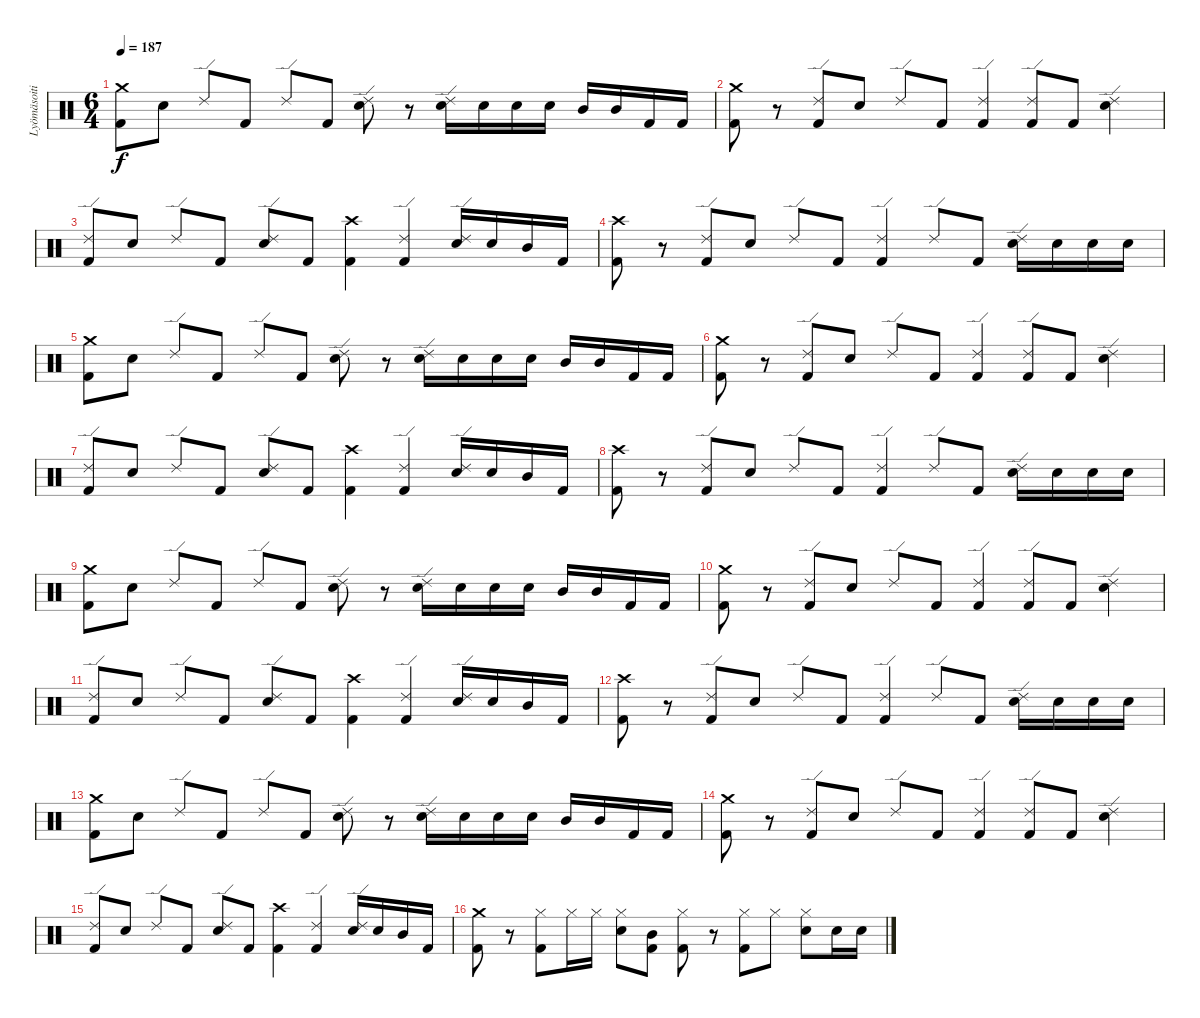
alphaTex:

\track ("Lyömäsoitin" "Lyömäsoiti") {instrument percussion}
\staff {score}
\articulation defaults
\ts (6 4)
\tempo 187
\clef neutral
\ks c
("Kick (hit) 2" "Crash medium (hit)").8{dy f} "Snare (hit) 2".8 "Ride (edge) 2".8 "Kick (hit) 2".8 "Ride (edge) 2".8 "Kick (hit) 2".8 ("Ride (edge) 2" "Snare (hit) 2").8 r.8 ("Ride (edge) 2" "Snare (hit) 2").16 "Snare (hit) 2".16 "Snare (hit) 2".16 "Snare (hit) 2".16 "Mid Tom (hit)".16 "Mid Tom (hit)".16 "Kick (hit) 2".16 "Kick (hit) 2".16 |
("Kick (hit) 2" "Crash medium (hit)").8 r.8 ("Kick (hit) 2" "Ride (edge) 2").8 "Snare (hit) 2".8 "Ride (edge) 2".8 "Kick (hit) 2".8 ("Ride (edge) 2" "Kick (hit) 2").4 ("Ride (edge) 2" "Kick (hit) 2").8 "Kick (hit) 2".8 ("Ride (edge) 2" "Snare (hit) 2").4 |
("Ride (edge) 2" "Kick (hit) 2").8 "Snare (hit) 2".8 "Ride (edge) 2".8 "Kick (hit) 2".8 ("Ride (edge) 2" "Snare (hit) 2").8 "Kick (hit) 2".8 ("Crash high (hit)" "Kick (hit) 2").4 ("Ride (edge) 2" "Kick (hit) 2").4 ("Snare (hit) 2" "Ride (edge) 2").16 "Snare (hit) 2".16 "Mid Tom (hit)".16 "Kick (hit) 2".16 |
("Kick (hit) 2" "Crash high (hit)").8 r.8 ("Ride (edge) 2" "Kick (hit) 2").8 "Snare (hit) 2".8 "Ride (edge) 2".8 "Kick (hit) 2".8 ("Ride (edge) 2" "Kick (hit) 2").4 "Ride (edge) 2".8 "Kick (hit) 2".8 ("Ride (edge) 2" "Snare (hit) 2").16 "Snare (hit) 2".16 "Snare (hit) 2".16 "Snare (hit) 2".16 |
("Kick (hit) 2" "Crash medium (hit)").8 "Snare (hit) 2".8 "Ride (edge) 2".8 "Kick (hit) 2".8 "Ride (edge) 2".8 "Kick (hit) 2".8 ("Ride (edge) 2" "Snare (hit) 2").8 r.8 ("Ride (edge) 2" "Snare (hit) 2").16 "Snare (hit) 2".16 "Snare (hit) 2".16 "Snare (hit) 2".16 "Mid Tom (hit)".16 "Mid Tom (hit)".16 "Kick (hit) 2".16 "Kick (hit) 2".16 |
("Kick (hit) 2" "Crash medium (hit)").8 r.8 ("Kick (hit) 2" "Ride (edge) 2").8 "Snare (hit) 2".8 "Ride (edge) 2".8 "Kick (hit) 2".8 ("Ride (edge) 2" "Kick (hit) 2").4 ("Ride (edge) 2" "Kick (hit) 2").8 "Kick (hit) 2".8 ("Ride (edge) 2" "Snare (hit) 2").4 |
("Ride (edge) 2" "Kick (hit) 2").8 "Snare (hit) 2".8 "Ride (edge) 2".8 "Kick (hit) 2".8 ("Ride (edge) 2" "Snare (hit) 2").8 "Kick (hit) 2".8 ("Crash high (hit)" "Kick (hit) 2").4 ("Ride (edge) 2" "Kick (hit) 2").4 ("Snare (hit) 2" "Ride (edge) 2").16 "Snare (hit) 2".16 "Mid Tom (hit)".16 "Kick (hit) 2".16 |
("Kick (hit) 2" "Crash high (hit)").8 r.8 ("Ride (edge) 2" "Kick (hit) 2").8 "Snare (hit) 2".8 "Ride (edge) 2".8 "Kick (hit) 2".8 ("Ride (edge) 2" "Kick (hit) 2").4 "Ride (edge) 2".8 "Kick (hit) 2".8 ("Ride (edge) 2" "Snare (hit) 2").16 "Snare (hit) 2".16 "Snare (hit) 2".16 "Snare (hit) 2".16 |
("Kick (hit) 2" "Crash medium (hit)").8 "Snare (hit) 2".8 "Ride (edge) 2".8 "Kick (hit) 2".8 "Ride (edge) 2".8 "Kick (hit) 2".8 ("Ride (edge) 2" "Snare (hit) 2").8 r.8 ("Ride (edge) 2" "Snare (hit) 2").16 "Snare (hit) 2".16 "Snare (hit) 2".16 "Snare (hit) 2".16 "Mid Tom (hit)".16 "Mid Tom (hit)".16 "Kick (hit) 2".16 "Kick (hit) 2".16 |
("Kick (hit) 2" "Crash medium (hit)").8 r.8 ("Kick (hit) 2" "Ride (edge) 2").8 "Snare (hit) 2".8 "Ride (edge) 2".8 "Kick (hit) 2".8 ("Ride (edge) 2" "Kick (hit) 2").4 ("Ride (edge) 2" "Kick (hit) 2").8 "Kick (hit) 2".8 ("Ride (edge) 2" "Snare (hit) 2").4 |
("Ride (edge) 2" "Kick (hit) 2").8 "Snare (hit) 2".8 "Ride (edge) 2".8 "Kick (hit) 2".8 ("Ride (edge) 2" "Snare (hit) 2").8 "Kick (hit) 2".8 ("Crash high (hit)" "Kick (hit) 2").4 ("Ride (edge) 2" "Kick (hit) 2").4 ("Snare (hit) 2" "Ride (edge) 2").16 "Snare (hit) 2".16 "Mid Tom (hit)".16 "Kick (hit) 2".16 |
("Kick (hit) 2" "Crash high (hit)").8 r.8 ("Ride (edge) 2" "Kick (hit) 2").8 "Snare (hit) 2".8 "Ride (edge) 2".8 "Kick (hit) 2".8 ("Ride (edge) 2" "Kick (hit) 2").4 "Ride (edge) 2".8 "Kick (hit) 2".8 ("Ride (edge) 2" "Snare (hit) 2").16 "Snare (hit) 2".16 "Snare (hit) 2".16 "Snare (hit) 2".16 |
("Kick (hit) 2" "Crash medium (hit)").8 "Snare (hit) 2".8 "Ride (edge) 2".8 "Kick (hit) 2".8 "Ride (edge) 2".8 "Kick (hit) 2".8 ("Ride (edge) 2" "Snare (hit) 2").8 r.8 ("Ride (edge) 2" "Snare (hit) 2").16 "Snare (hit) 2".16 "Snare (hit) 2".16 "Snare (hit) 2".16 "Mid Tom (hit)".16 "Mid Tom (hit)".16 "Kick (hit) 2".16 "Kick (hit) 2".16 |
("Kick (hit) 2" "Crash medium (hit)").8 r.8 ("Kick (hit) 2" "Ride (edge) 2").8 "Snare (hit) 2".8 "Ride (edge) 2".8 "Kick (hit) 2".8 ("Ride (edge) 2" "Kick (hit) 2").4 ("Ride (edge) 2" "Kick (hit) 2").8 "Kick (hit) 2".8 ("Ride (edge) 2" "Snare (hit) 2").4 |
("Ride (edge) 2" "Kick (hit) 2").8 "Snare (hit) 2".8 "Ride (edge) 2".8 "Kick (hit) 2".8 ("Ride (edge) 2" "Snare (hit) 2").8 "Kick (hit) 2".8 ("Crash high (hit)" "Kick (hit) 2").4 ("Ride (edge) 2" "Kick (hit) 2").4 ("Snare (hit) 2" "Ride (edge) 2").16 "Snare (hit) 2".16 "Mid Tom (hit)".16 "Kick (hit) 2".16 |
("Kick (hit) 2" "Crash medium (hit)").8 r.8 ("Kick (hit) 2" "Hi-Hat (closed)").8 "Hi-Hat (closed)".16 "Hi-Hat (closed)".16 ("Hi-Hat (closed)" "Snare (hit) 2").8 ("Kick (hit) 2" "Mid Tom (hit)").8 ("Kick (hit) 2" "Hi-Hat (closed)").8 r.8 ("Hi-Hat (closed)" "Kick (hit) 2").8 "Hi-Hat (closed)".8 ("Snare (hit) 2" "Hi-Hat (closed)").8 "Snare (hit) 2".16 "Snare (hit) 2".16
